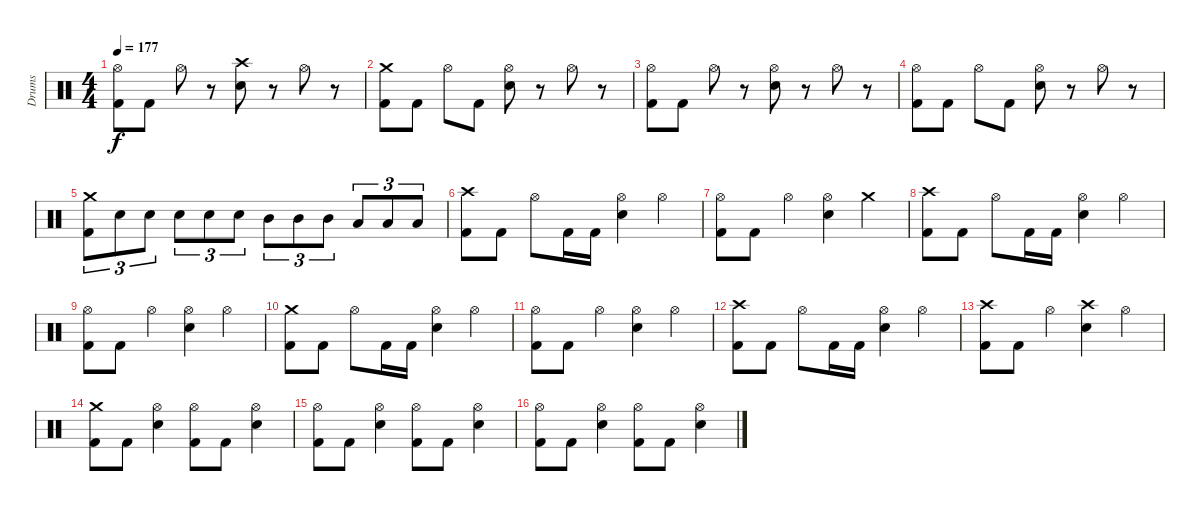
\track ("Drums" "Drums") {instrument percussion}
\staff {score}
\articulation defaults
\ts (4 4)
\tempo 177
\clef neutral
\ks c
("Hi-Hat (open)" "Kick (hit) 2").8{dy f} "Kick (hit) 2".8 "Hi-Hat (open)".8 r.8 ("Crash high (hit)" "Snare (hit) 2").8 r.8 "Hi-Hat (open)".8 r.8 |
("Crash medium (hit)" "Kick (hit) 2").8 "Kick (hit) 2".8 "Hi-Hat (open)".8 "Kick (hit) 2".8 ("Hi-Hat (open)" "Snare (hit) 2").8 r.8 "Hi-Hat (open)".8 r.8 |
("Hi-Hat (open)" "Kick (hit) 2").8 "Kick (hit) 2".8 "Hi-Hat (open)".8 r.8 ("Hi-Hat (open)" "Snare (hit) 2").8 r.8 "Hi-Hat (open)".8 r.8 |
("Hi-Hat (open)" "Kick (hit) 2").8 "Kick (hit) 2".8 "Hi-Hat (open)".8 "Kick (hit) 2".8 ("Hi-Hat (open)" "Snare (hit) 2").8 r.8 "Hi-Hat (open)".8 r.8 |
("Crash medium (hit)" "Kick (hit) 2").8{tu (3 2)} "Snare (hit) 2".8{tu (3 2)} "Snare (hit) 2".8{tu (3 2)} "Snare (hit) 2".8{tu (3 2)} "Snare (hit) 2".8{tu (3 2)} "Snare (hit) 2".8{tu (3 2)} "Mid Tom (hit)".8{tu (3 2)} "Mid Tom (hit)".8{tu (3 2)} "Mid Tom (hit)".8{tu (3 2)} "Low Tom (hit)".8{tu (3 2)} "Low Tom (hit)".8{tu (3 2)} "Low Tom (hit)".8{tu (3 2)} |
("Crash high (hit)" "Kick (hit) 2").8 "Kick (hit) 2".8 "Hi-Hat (open)".8 "Kick (hit) 2".16 "Kick (hit) 2".16 ("Hi-Hat (open)" "Snare (hit) 2").4 "Hi-Hat (open)".4 |
("Hi-Hat (open)" "Kick (hit) 2").8 "Kick (hit) 2".8 "Hi-Hat (open)".4 ("Hi-Hat (open)" "Snare (hit) 2").4 "Crash medium (hit)".4 |
("Crash high (hit)" "Kick (hit) 2").8 "Kick (hit) 2".8 "Hi-Hat (open)".8 "Kick (hit) 2".16 "Kick (hit) 2".16 ("Hi-Hat (open)" "Snare (hit) 2").4 "Hi-Hat (open)".4 |
("Hi-Hat (open)" "Kick (hit) 2").8 "Kick (hit) 2".8 "Hi-Hat (open)".4 ("Hi-Hat (open)" "Snare (hit) 2").4 "Hi-Hat (open)".4 |
("Crash medium (hit)" "Kick (hit) 2").8 "Kick (hit) 2".8 "Hi-Hat (open)".8 "Kick (hit) 2".16 "Kick (hit) 2".16 ("Hi-Hat (open)" "Snare (hit) 2").4 "Hi-Hat (open)".4 |
("Hi-Hat (open)" "Kick (hit) 2").8 "Kick (hit) 2".8 "Hi-Hat (open)".4 ("Hi-Hat (open)" "Snare (hit) 2").4 "Hi-Hat (open)".4 |
("Crash high (hit)" "Kick (hit) 2").8 "Kick (hit) 2".8 "Hi-Hat (open)".8 "Kick (hit) 2".16 "Kick (hit) 2".16 ("Hi-Hat (open)" "Snare (hit) 2").4 "Hi-Hat (open)".4 |
("Crash high (hit)" "Kick (hit) 2").8 "Kick (hit) 2".8 "Hi-Hat (open)".4 ("Crash high (hit)" "Snare (hit) 2").4 "Hi-Hat (open)".4 |
("Crash medium (hit)" "Kick (hit) 2").8 "Kick (hit) 2".8 ("Hi-Hat (open)" "Snare (hit) 2").4 ("Hi-Hat (open)" "Kick (hit) 2").8 "Kick (hit) 2".8 ("Hi-Hat (open)" "Snare (hit) 2").4 |
("Hi-Hat (open)" "Kick (hit) 2").8 "Kick (hit) 2".8 ("Hi-Hat (open)" "Snare (hit) 2").4 ("Hi-Hat (open)" "Kick (hit) 2").8 "Kick (hit) 2".8 ("Hi-Hat (open)" "Snare (hit) 2").4 |
("Hi-Hat (open)" "Kick (hit) 2").8 "Kick (hit) 2".8 ("Hi-Hat (open)" "Snare (hit) 2").4 ("Hi-Hat (open)" "Kick (hit) 2").8 "Kick (hit) 2".8 ("Hi-Hat (open)" "Snare (hit) 2").4
